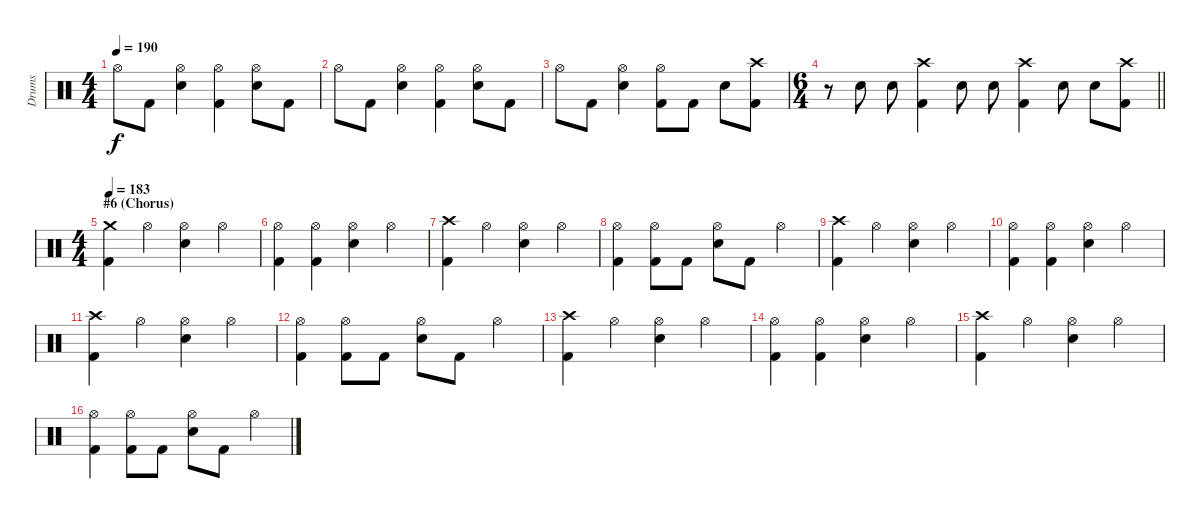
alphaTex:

\track ("Drums" "Drums") {instrument percussion}
\staff {score}
\articulation defaults
\ts (4 4)
\tempo 190
\clef neutral
\ks c "Hi-Hat (open)".8{dy f} "Kick (hit) 2".8
("Hi-Hat (open)" "Electric Snare (hit)").4 ("Hi-Hat (open)" "Kick (hit) 2").4 ("Hi-Hat (open)" "Electric Snare (hit)").8 "Kick (hit) 2".8 |
"Hi-Hat (open)".8 "Kick (hit) 2".8 ("Hi-Hat (open)" "Electric Snare (hit)").4 ("Hi-Hat (open)" "Kick (hit) 2").4 ("Hi-Hat (open)" "Electric Snare (hit)").8 "Kick (hit) 2".8 |
"Hi-Hat (open)".8 "Kick (hit) 2".8 ("Hi-Hat (open)" "Electric Snare (hit)").4 ("Hi-Hat (open)" "Kick (hit) 2").8 "Kick (hit) 2".8 "Electric Snare (hit)".8 ("Crash high (hit)" "Kick (hit) 2").8 |
\ts (6 4)
\barLineRight lightlight
r.8 "Electric Snare (hit)".8 "Electric Snare (hit)".8 ("Crash high (hit)" "Kick (hit) 2").4 "Electric Snare (hit)".8 "Electric Snare (hit)".8 ("Crash high (hit)" "Kick (hit) 2").4 "Snare (hit) 2".8 "Electric Snare (hit)".8 ("Crash high (hit)" "Kick (hit) 2").8 |
\ts (4 4)
\section ("" "#6 (Chorus)")
\tempo 183
("Crash medium (hit)" "Kick (hit) 2").4 "Hi-Hat (open)".4 ("Hi-Hat (open)" "Electric Snare (hit)").4 "Hi-Hat (open)".4 |
("Hi-Hat (open)" "Kick (hit) 2").4 ("Hi-Hat (open)" "Kick (hit) 2").4 ("Hi-Hat (open)" "Electric Snare (hit)").4 "Hi-Hat (open)".4 |
("Crash high (hit)" "Kick (hit) 2").4 "Hi-Hat (open)".4 ("Hi-Hat (open)" "Electric Snare (hit)").4 "Hi-Hat (open)".4 |
("Hi-Hat (open)" "Kick (hit) 2").4 ("Hi-Hat (open)" "Kick (hit) 2").8 "Kick (hit) 2".8 ("Hi-Hat (open)" "Electric Snare (hit)").8 "Kick (hit) 2".8 "Hi-Hat (open)".4 |
("Crash high (hit)" "Kick (hit) 2").4 "Hi-Hat (open)".4 ("Hi-Hat (open)" "Electric Snare (hit)").4 "Hi-Hat (open)".4 |
("Hi-Hat (open)" "Kick (hit) 2").4 ("Hi-Hat (open)" "Kick (hit) 2").4 ("Hi-Hat (open)" "Electric Snare (hit)").4 "Hi-Hat (open)".4 |
("Crash high (hit)" "Kick (hit) 2").4 "Hi-Hat (open)".4 ("Hi-Hat (open)" "Electric Snare (hit)").4 "Hi-Hat (open)".4 |
("Hi-Hat (open)" "Kick (hit) 2").4 ("Hi-Hat (open)" "Kick (hit) 2").8 "Kick (hit) 2".8 ("Hi-Hat (open)" "Electric Snare (hit)").8 "Kick (hit) 2".8 "Hi-Hat (open)".4 |
("Crash high (hit)" "Kick (hit) 2").4 "Hi-Hat (open)".4 ("Hi-Hat (open)" "Electric Snare (hit)").4 "Hi-Hat (open)".4 |
("Hi-Hat (open)" "Kick (hit) 2").4 ("Hi-Hat (open)" "Kick (hit) 2").4 ("Hi-Hat (open)" "Electric Snare (hit)").4 "Hi-Hat (open)".4 |
("Crash high (hit)" "Kick (hit) 2").4 "Hi-Hat (open)".4 ("Hi-Hat (open)" "Electric Snare (hit)").4 "Hi-Hat (open)".4 |
("Hi-Hat (open)" "Kick (hit) 2").4 ("Hi-Hat (open)" "Kick (hit) 2").8 "Kick (hit) 2".8 ("Hi-Hat (open)" "Electric Snare (hit)").8 "Kick (hit) 2".8 "Hi-Hat (open)".4
